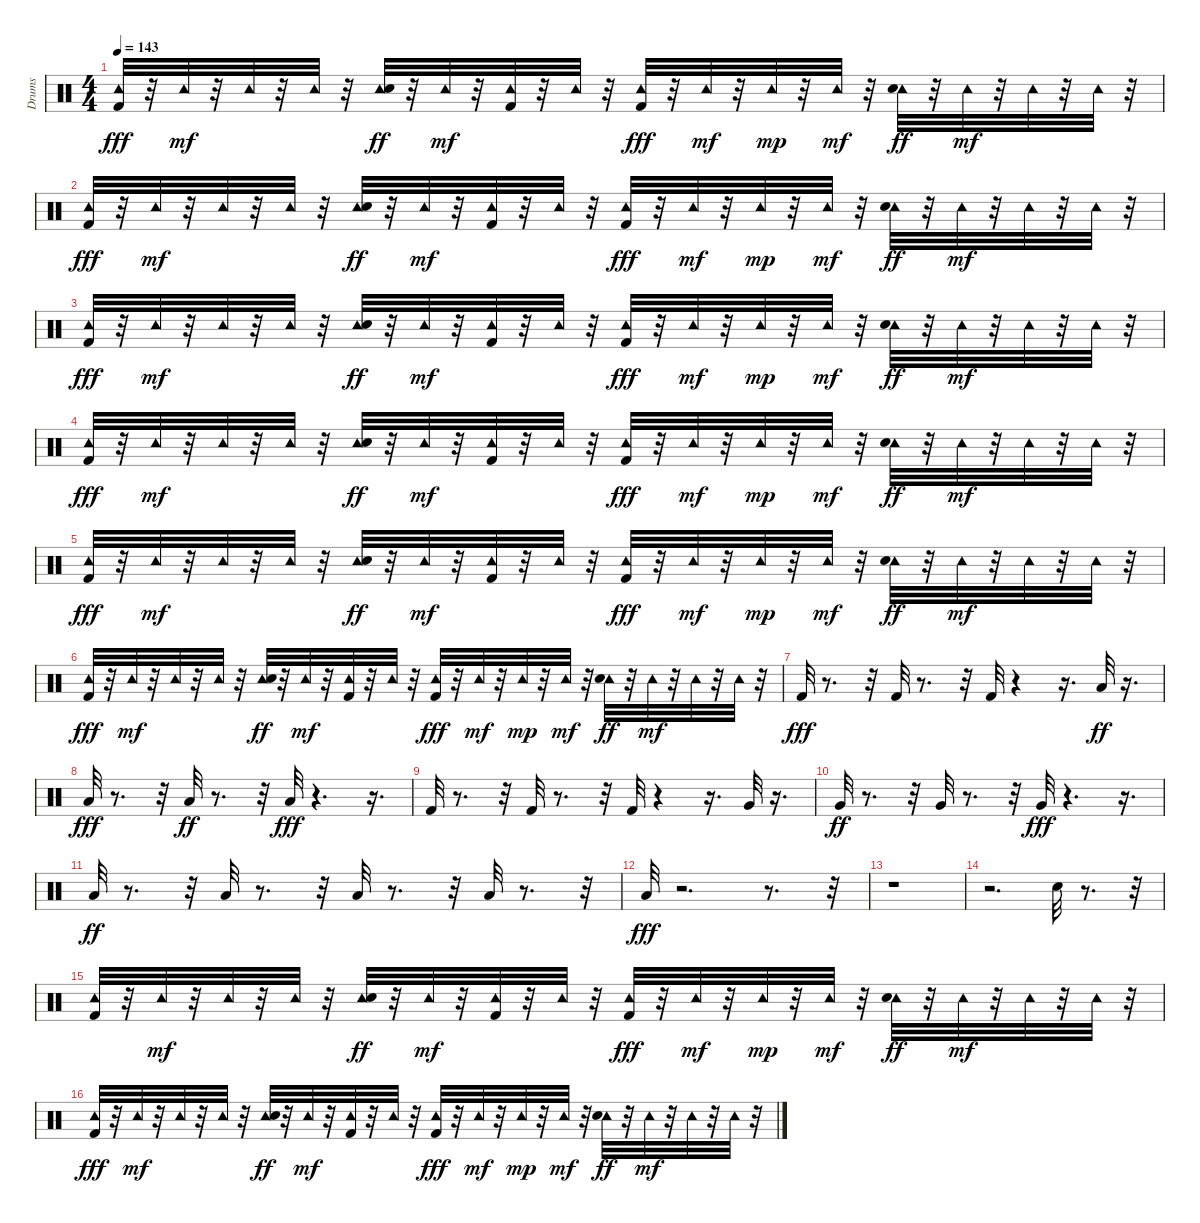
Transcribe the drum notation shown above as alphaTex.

\track ("Drums" "Drums") {instrument percussion}
\staff {score}
\articulation defaults
\ts (4 4)
\tempo 143
\clef neutral
\ks c
("Kick (hit) 2" "Tambourine (hit)").32{dy fff} r.32 "Tambourine (hit)".32{dy mf} r.32 "Tambourine (hit)".32 r.32 "Tambourine (hit)".32 r.32 ("Tambourine (hit)" "Snare (hit) 2").32{dy ff} r.32 "Tambourine (hit)".32{dy mf} r.32 ("Kick (hit) 2" "Tambourine (hit)").32 r.32 "Tambourine (hit)".32 r.32 ("Kick (hit) 2" "Tambourine (hit)").32{dy fff} r.32 "Tambourine (hit)".32{dy mf} r.32 "Tambourine (hit)".32{dy mp} r.32 "Tambourine (hit)".32{dy mf} r.32 ("Tambourine (hit)" "Snare (hit) 2").32{dy ff} r.32 "Tambourine (hit)".32{dy mf} r.32 "Tambourine (hit)".32 r.32 "Tambourine (hit)".32 r.32 |
("Kick (hit) 2" "Tambourine (hit)").32{dy fff} r.32 "Tambourine (hit)".32{dy mf} r.32 "Tambourine (hit)".32 r.32 "Tambourine (hit)".32 r.32 ("Tambourine (hit)" "Snare (hit) 2").32{dy ff} r.32 "Tambourine (hit)".32{dy mf} r.32 ("Kick (hit) 2" "Tambourine (hit)").32 r.32 "Tambourine (hit)".32 r.32 ("Kick (hit) 2" "Tambourine (hit)").32{dy fff} r.32 "Tambourine (hit)".32{dy mf} r.32 "Tambourine (hit)".32{dy mp} r.32 "Tambourine (hit)".32{dy mf} r.32 ("Tambourine (hit)" "Snare (hit) 2").32{dy ff} r.32 "Tambourine (hit)".32{dy mf} r.32 "Tambourine (hit)".32 r.32 "Tambourine (hit)".32 r.32 |
("Kick (hit) 2" "Tambourine (hit)").32{dy fff} r.32 "Tambourine (hit)".32{dy mf} r.32 "Tambourine (hit)".32 r.32 "Tambourine (hit)".32 r.32 ("Tambourine (hit)" "Snare (hit) 2").32{dy ff} r.32 "Tambourine (hit)".32{dy mf} r.32 ("Kick (hit) 2" "Tambourine (hit)").32 r.32 "Tambourine (hit)".32 r.32 ("Kick (hit) 2" "Tambourine (hit)").32{dy fff} r.32 "Tambourine (hit)".32{dy mf} r.32 "Tambourine (hit)".32{dy mp} r.32 "Tambourine (hit)".32{dy mf} r.32 ("Tambourine (hit)" "Snare (hit) 2").32{dy ff} r.32 "Tambourine (hit)".32{dy mf} r.32 "Tambourine (hit)".32 r.32 "Tambourine (hit)".32 r.32 |
("Kick (hit) 2" "Tambourine (hit)").32{dy fff} r.32 "Tambourine (hit)".32{dy mf} r.32 "Tambourine (hit)".32 r.32 "Tambourine (hit)".32 r.32 ("Tambourine (hit)" "Snare (hit) 2").32{dy ff} r.32 "Tambourine (hit)".32{dy mf} r.32 ("Kick (hit) 2" "Tambourine (hit)").32 r.32 "Tambourine (hit)".32 r.32 ("Kick (hit) 2" "Tambourine (hit)").32{dy fff} r.32 "Tambourine (hit)".32{dy mf} r.32 "Tambourine (hit)".32{dy mp} r.32 "Tambourine (hit)".32{dy mf} r.32 ("Tambourine (hit)" "Snare (hit) 2").32{dy ff} r.32 "Tambourine (hit)".32{dy mf} r.32 "Tambourine (hit)".32 r.32 "Tambourine (hit)".32 r.32 |
("Kick (hit) 2" "Tambourine (hit)").32{dy fff} r.32 "Tambourine (hit)".32{dy mf} r.32 "Tambourine (hit)".32 r.32 "Tambourine (hit)".32 r.32 ("Tambourine (hit)" "Snare (hit) 2").32{dy ff} r.32 "Tambourine (hit)".32{dy mf} r.32 ("Kick (hit) 2" "Tambourine (hit)").32 r.32 "Tambourine (hit)".32 r.32 ("Kick (hit) 2" "Tambourine (hit)").32{dy fff} r.32 "Tambourine (hit)".32{dy mf} r.32 "Tambourine (hit)".32{dy mp} r.32 "Tambourine (hit)".32{dy mf} r.32 ("Tambourine (hit)" "Snare (hit) 2").32{dy ff} r.32 "Tambourine (hit)".32{dy mf} r.32 "Tambourine (hit)".32 r.32 "Tambourine (hit)".32 r.32 |
("Kick (hit) 2" "Tambourine (hit)").32{dy fff} r.32 "Tambourine (hit)".32{dy mf} r.32 "Tambourine (hit)".32 r.32 "Tambourine (hit)".32 r.32 ("Tambourine (hit)" "Snare (hit) 2").32{dy ff} r.32 "Tambourine (hit)".32{dy mf} r.32 ("Kick (hit) 2" "Tambourine (hit)").32 r.32 "Tambourine (hit)".32 r.32 ("Kick (hit) 2" "Tambourine (hit)").32{dy fff} r.32 "Tambourine (hit)".32{dy mf} r.32 "Tambourine (hit)".32{dy mp} r.32 "Tambourine (hit)".32{dy mf} r.32 ("Tambourine (hit)" "Snare (hit) 2").32{dy ff} r.32 "Tambourine (hit)".32{dy mf} r.32 "Tambourine (hit)".32 r.32 "Tambourine (hit)".32 r.32 |
"Kick (hit) 2".32{dy fff} r.8{d} r.32 "Kick (hit) 2".32 r.8{d} r.32 "Kick (hit) 2".32 r.4 r.16{d} "Low Tom (hit)".32{dy ff} r.16{d} |
"Low Tom (hit)".32{dy fff} r.8{d} r.32 "Low Tom (hit)".32{dy ff} r.8{d} r.32 "Low Tom (hit)".32{dy fff} r.4{d} r.16{d} |
"Kick (hit) 2".32 r.8{d} r.32 "Kick (hit) 2".32 r.8{d} r.32 "Kick (hit) 2".32 r.4 r.16{d} "Very Low Tom (hit)".32 r.16{d} |
"Very Low Tom (hit)".32{dy ff} r.8{d} r.32 "Very Low Tom (hit)".32 r.8{d} r.32 "Very Low Tom (hit)".32{dy fff} r.4{d} r.16{d} |
"Low Floor Tom (hit)".32{dy ff} r.8{d} r.32 "Low Floor Tom (hit)".32 r.8{d} r.32 "Low Floor Tom (hit)".32 r.8{d} r.32 "Low Floor Tom (hit)".32 r.8{d} r.32 |
"Low Floor Tom (hit)".32{dy fff} r.2{d} r.8{d} r.32 |
r.1 |
r.2{d} "Snare (hit) 2".32 r.8{d} r.32 |
("Kick (hit) 2" "Tambourine (hit)").32 r.32 "Tambourine (hit)".32{dy mf} r.32 "Tambourine (hit)".32 r.32 "Tambourine (hit)".32 r.32 ("Tambourine (hit)" "Snare (hit) 2").32{dy ff} r.32 "Tambourine (hit)".32{dy mf} r.32 ("Kick (hit) 2" "Tambourine (hit)").32 r.32 "Tambourine (hit)".32 r.32 ("Kick (hit) 2" "Tambourine (hit)").32{dy fff} r.32 "Tambourine (hit)".32{dy mf} r.32 "Tambourine (hit)".32{dy mp} r.32 "Tambourine (hit)".32{dy mf} r.32 ("Tambourine (hit)" "Snare (hit) 2").32{dy ff} r.32 "Tambourine (hit)".32{dy mf} r.32 "Tambourine (hit)".32 r.32 "Tambourine (hit)".32 r.32 |
("Kick (hit) 2" "Tambourine (hit)").32{dy fff} r.32 "Tambourine (hit)".32{dy mf} r.32 "Tambourine (hit)".32 r.32 "Tambourine (hit)".32 r.32 ("Tambourine (hit)" "Snare (hit) 2").32{dy ff} r.32 "Tambourine (hit)".32{dy mf} r.32 ("Kick (hit) 2" "Tambourine (hit)").32 r.32 "Tambourine (hit)".32 r.32 ("Kick (hit) 2" "Tambourine (hit)").32{dy fff} r.32 "Tambourine (hit)".32{dy mf} r.32 "Tambourine (hit)".32{dy mp} r.32 "Tambourine (hit)".32{dy mf} r.32 ("Tambourine (hit)" "Snare (hit) 2").32{dy ff} r.32 "Tambourine (hit)".32{dy mf} r.32 "Tambourine (hit)".32 r.32 "Tambourine (hit)".32 r.32
